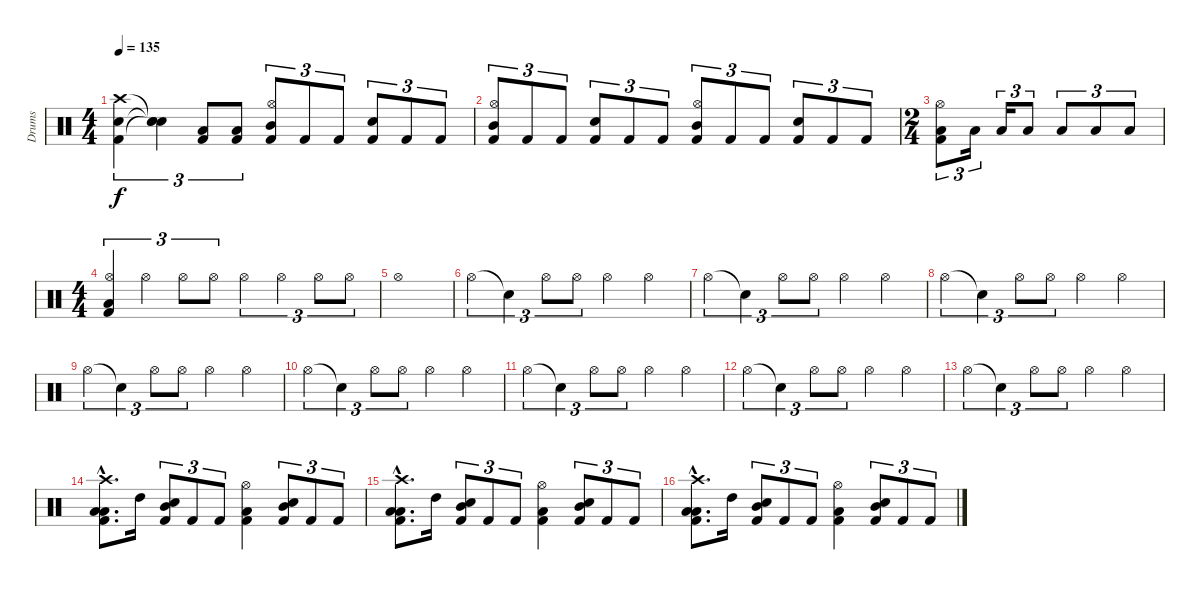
\track ("Drums" "Drums") {instrument percussion}
\staff {score}
\articulation defaults
\ts (4 4)
\tempo 135
\clef neutral
\ks c
("Crash high (hit)" "Snare (hit) 2" "Kick (hit) 2").4{tu (3 2) dy f} ("Snare (hit)"{t} "Snare (hit)"{t} "Snare (hit)"{t}).4{tu (3 2)} ("Low Tom (hit)" "Kick (hit) 2").8{tu (3 2)} ("Low Tom (hit)" "Kick (hit) 2").8{tu (3 2)} ("Hi-Hat (open)" "Mid Tom (hit)" "Kick (hit) 2").8{tu (3 2)} "Kick (hit) 2".8{tu (3 2)} "Kick (hit) 2".8{tu (3 2)} ("Snare (hit) 2" "Kick (hit) 2").8{tu (3 2)} "Kick (hit) 2".8{tu (3 2)} "Kick (hit) 2".8{tu (3 2)} |
("Hi-Hat (open)" "Mid Tom (hit)" "Kick (hit) 2").8{tu (3 2)} "Kick (hit) 2".8{tu (3 2)} "Kick (hit) 2".8{tu (3 2)} ("Snare (hit) 2" "Kick (hit) 2").8{tu (3 2)} "Kick (hit) 2".8{tu (3 2)} "Kick (hit) 2".8{tu (3 2)} ("Hi-Hat (open)" "Mid Tom (hit)" "Kick (hit) 2").8{tu (3 2)} "Kick (hit) 2".8{tu (3 2)} "Kick (hit) 2".8{tu (3 2)} ("Snare (hit) 2" "Kick (hit) 2").8{tu (3 2)} "Kick (hit) 2".8{tu (3 2)} "Kick (hit) 2".8{tu (3 2)} |
\ts (2 4)
("Hi-Hat (open)" "Low Tom (hit)" "Kick (hit) 2").8{tu (3 2)} "Low Tom (hit)".16{tu (3 2)} "Low Tom (hit)".16{tu (3 2)} "Low Tom (hit)".8{tu (3 2)} "Low Tom (hit)".8{tu (3 2)} "Low Tom (hit)".8{tu (3 2)} "Low Tom (hit)".8{tu (3 2)} |
\ts (4 4)
("Hi-Hat (open)" "Low Floor Tom (hit)" "Kick (hit) 2").4{tu (3 2) volume 13} "Hi-Hat (open)".4{tu (3 2)} "Hi-Hat (open)".8{tu (3 2)} "Hi-Hat (open)".8{tu (3 2)} "Hi-Hat (open)".4{tu (3 2)} "Hi-Hat (open)".4{tu (3 2)} "Hi-Hat (open)".8{tu (3 2)} "Hi-Hat (open)".8{tu (3 2)} |
"Hi-Hat (open)".1 |
"Hi-Hat (open)".4{tu (3 2) volume 10} "Snare (hit)"{t}.4{tu (3 2)} "Hi-Hat (open)".8{tu (3 2)} "Hi-Hat (open)".8{tu (3 2)} "Hi-Hat (open)".4 "Hi-Hat (open)".4 |
"Hi-Hat (open)".4{tu (3 2) volume 10} "Snare (hit)"{t}.4{tu (3 2)} "Hi-Hat (open)".8{tu (3 2)} "Hi-Hat (open)".8{tu (3 2)} "Hi-Hat (open)".4 "Hi-Hat (open)".4 |
"Hi-Hat (open)".4{tu (3 2) volume 10} "Snare (hit)"{t}.4{tu (3 2)} "Hi-Hat (open)".8{tu (3 2)} "Hi-Hat (open)".8{tu (3 2)} "Hi-Hat (open)".4 "Hi-Hat (open)".4 |
"Hi-Hat (open)".4{tu (3 2) volume 10} "Snare (hit)"{t}.4{tu (3 2)} "Hi-Hat (open)".8{tu (3 2)} "Hi-Hat (open)".8{tu (3 2)} "Hi-Hat (open)".4 "Hi-Hat (open)".4 |
"Hi-Hat (open)".4{tu (3 2) volume 10} "Snare (hit)"{t}.4{tu (3 2)} "Hi-Hat (open)".8{tu (3 2)} "Hi-Hat (open)".8{tu (3 2)} "Hi-Hat (open)".4 "Hi-Hat (open)".4 |
"Hi-Hat (open)".4{tu (3 2) volume 10} "Snare (hit)"{t}.4{tu (3 2)} "Hi-Hat (open)".8{tu (3 2)} "Hi-Hat (open)".8{tu (3 2)} "Hi-Hat (open)".4 "Hi-Hat (open)".4 |
"Hi-Hat (open)".4{tu (3 2) volume 10} "Snare (hit)"{t}.4{tu (3 2)} "Hi-Hat (open)".8{tu (3 2)} "Hi-Hat (open)".8{tu (3 2)} "Hi-Hat (open)".4 "Hi-Hat (open)".4 |
"Hi-Hat (open)".4{tu (3 2) volume 10} "Snare (hit)"{t}.4{tu (3 2)} "Hi-Hat (open)".8{tu (3 2)} "Hi-Hat (open)".8{tu (3 2)} "Hi-Hat (open)".4 "Hi-Hat (open)".4 |
("Crash high (hit)"{hac} "Low Tom (hit)"{hac} "Low Tom (hit)"{hac} "Kick (hit) 2"{hac}).8{d volume 16} "High Tom (hit)".16 ("Mid Tom (hit)" "Snare (hit) 2" "Kick (hit) 2").8{tu (3 2)} "Kick (hit) 2".8{tu (3 2)} "Kick (hit) 2".8{tu (3 2)} ("Hi-Hat (open)" "Low Tom (hit)" "Kick (hit) 2").4 ("Mid Tom (hit)" "Snare (hit) 2" "Kick (hit) 2").8{tu (3 2)} "Kick (hit) 2".8{tu (3 2)} "Kick (hit) 2".8{tu (3 2)} |
("Crash high (hit)"{hac} "Low Tom (hit)"{hac} "Low Tom (hit)"{hac} "Kick (hit) 2"{hac}).8{d} "High Tom (hit)".16 ("Mid Tom (hit)" "Snare (hit) 2" "Kick (hit) 2").8{tu (3 2)} "Kick (hit) 2".8{tu (3 2)} "Kick (hit) 2".8{tu (3 2)} ("Hi-Hat (open)" "Low Tom (hit)" "Kick (hit) 2").4 ("Mid Tom (hit)" "Snare (hit) 2" "Kick (hit) 2").8{tu (3 2)} "Kick (hit) 2".8{tu (3 2)} "Kick (hit) 2".8{tu (3 2)} |
("Crash high (hit)"{hac} "Low Tom (hit)"{hac} "Low Tom (hit)"{hac} "Kick (hit) 2"{hac}).8{d} "High Tom (hit)".16 ("Mid Tom (hit)" "Snare (hit) 2" "Kick (hit) 2").8{tu (3 2)} "Kick (hit) 2".8{tu (3 2)} "Kick (hit) 2".8{tu (3 2)} ("Hi-Hat (open)" "Low Tom (hit)" "Kick (hit) 2").4 ("Mid Tom (hit)" "Snare (hit) 2" "Kick (hit) 2").8{tu (3 2)} "Kick (hit) 2".8{tu (3 2)} "Kick (hit) 2".8{tu (3 2)}
